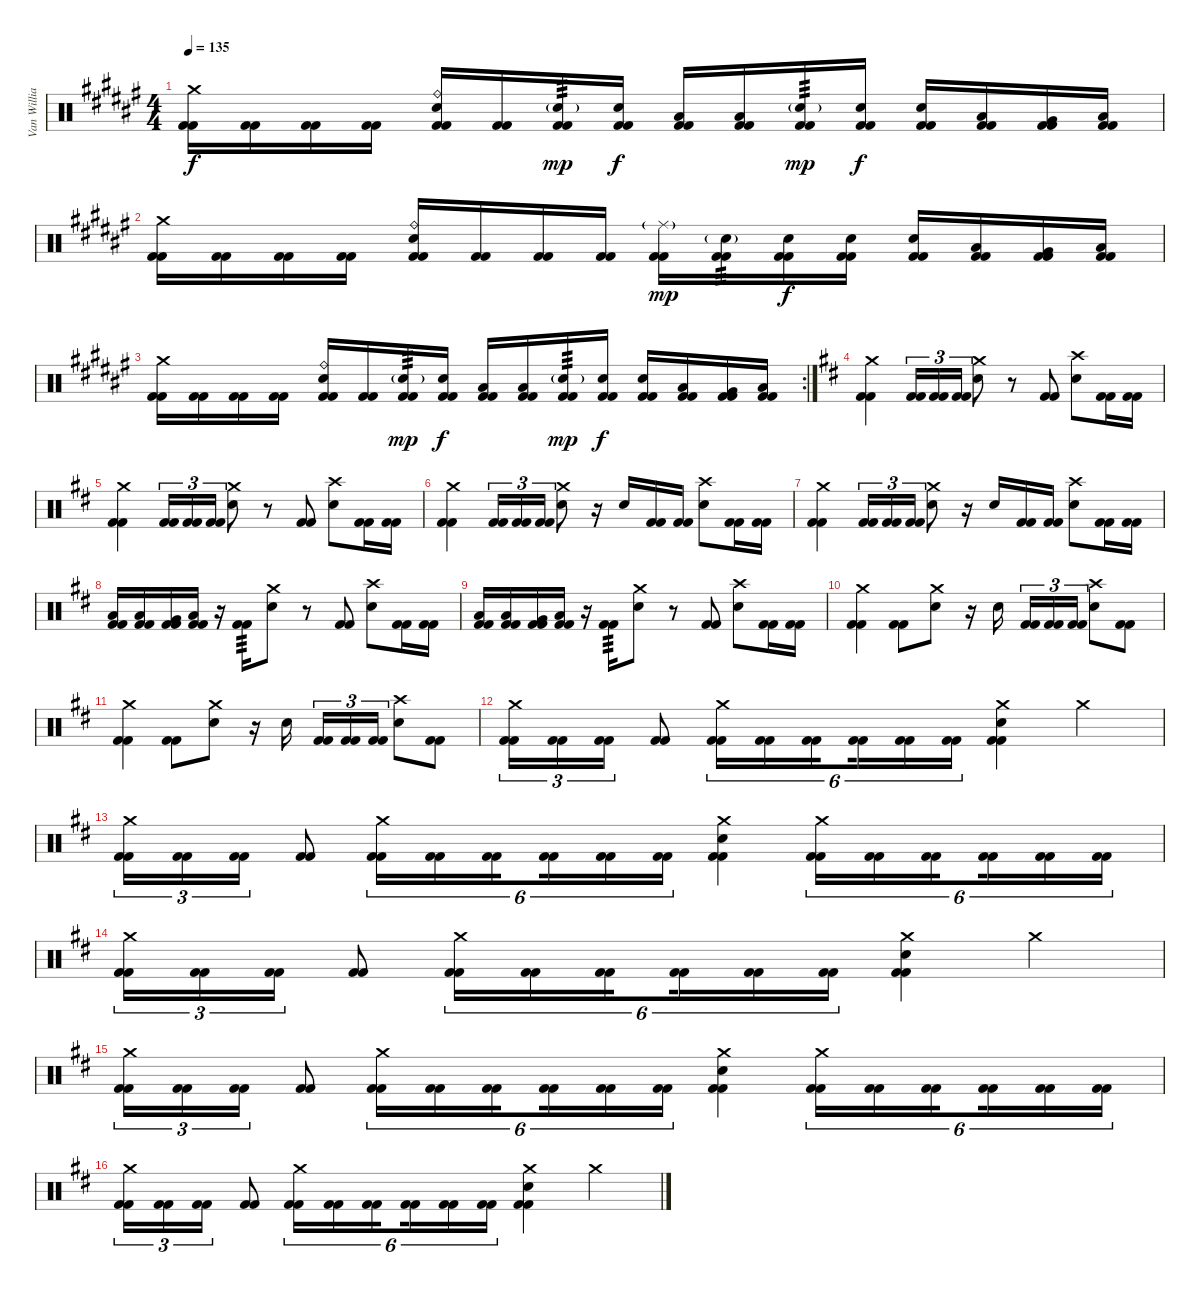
\track ("Van Williams" "Van Willia") {instrument percussion}
\staff {score}
\articulation defaults
\ts (4 4)
\tempo 135
\clef neutral
\ks f#
("Crash medium (hit)" "Kick (hit) 2" "Kick (hit) 2").16{dy f} ("Kick (hit) 2" "Kick (hit) 2").16 ("Kick (hit) 2" "Kick (hit) 2").16 ("Kick (hit) 2" "Kick (hit) 2").16 ("Ride (bell)" "Electric Snare (hit)" "Kick (hit) 2" "Kick (hit) 2").16 ("Kick (hit) 2" "Kick (hit) 2").16 ("Electric Snare (hit)"{g} "Kick (hit) 2" "Kick (hit) 2").16{tp 3 dy mp} ("Electric Snare (hit)" "Kick (hit) 2" "Kick (hit) 2").16{dy f} ("Low Tom (hit)" "Kick (hit) 2" "Kick (hit) 2").16 ("Low Tom (hit)" "Kick (hit) 2" "Kick (hit) 2").16 ("Electric Snare (hit)"{g} "Kick (hit) 2" "Kick (hit) 2").16{tp 3 dy mp} ("Electric Snare (hit)" "Kick (hit) 2" "Kick (hit) 2").16{dy f} ("Electric Snare (hit)" "Kick (hit) 2" "Kick (hit) 2").16 ("Low Tom (hit)" "Kick (hit) 2" "Kick (hit) 2").16 ("Very Low Tom (hit)" "Kick (hit) 2" "Kick (hit) 2").16 ("Low Floor Tom (hit)" "Kick (hit) 2" "Kick (hit) 2").16 |
("Crash medium (hit)" "Kick (hit) 2" "Kick (hit) 2").16 ("Kick (hit) 2" "Kick (hit) 2").16 ("Kick (hit) 2" "Kick (hit) 2").16 ("Kick (hit) 2" "Kick (hit) 2").16 ("Ride (bell)" "Electric Snare (hit)" "Kick (hit) 2" "Kick (hit) 2").16 ("Kick (hit) 2" "Kick (hit) 2").16 ("Kick (hit) 2" "Kick (hit) 2").16 ("Kick (hit) 2" "Kick (hit) 2").16 ("Ride (middle)"{g} "Kick (hit) 2" "Kick (hit) 2").16{dy mp} ("Electric Snare (hit)"{g} "Kick (hit) 2" "Kick (hit) 2").16{tp 3} ("Electric Snare (hit)" "Kick (hit) 2" "Kick (hit) 2").16{dy f} ("Electric Snare (hit)" "Kick (hit) 2" "Kick (hit) 2").16 ("Electric Snare (hit)" "Kick (hit) 2" "Kick (hit) 2").16 ("Low Tom (hit)" "Kick (hit) 2" "Kick (hit) 2").16 ("Very Low Tom (hit)" "Kick (hit) 2" "Kick (hit) 2").16 ("Low Floor Tom (hit)" "Kick (hit) 2" "Kick (hit) 2").16 |
\rc 2
("Crash medium (hit)" "Kick (hit) 2" "Kick (hit) 2").16 ("Kick (hit) 2" "Kick (hit) 2").16 ("Kick (hit) 2" "Kick (hit) 2").16 ("Kick (hit) 2" "Kick (hit) 2").16 ("Ride (bell)" "Electric Snare (hit)" "Kick (hit) 2" "Kick (hit) 2").16 ("Kick (hit) 2" "Kick (hit) 2").16 ("Electric Snare (hit)"{g} "Kick (hit) 2" "Kick (hit) 2").16{tp 3 dy mp} ("Electric Snare (hit)" "Kick (hit) 2" "Kick (hit) 2").16{dy f} ("Low Tom (hit)" "Kick (hit) 2" "Kick (hit) 2").16 ("Low Tom (hit)" "Kick (hit) 2" "Kick (hit) 2").16 ("Electric Snare (hit)"{g} "Kick (hit) 2" "Kick (hit) 2").16{tp 3 dy mp} ("Electric Snare (hit)" "Kick (hit) 2" "Kick (hit) 2").16{dy f} ("Electric Snare (hit)" "Kick (hit) 2" "Kick (hit) 2").16 ("Low Tom (hit)" "Kick (hit) 2" "Kick (hit) 2").16 ("Very Low Tom (hit)" "Kick (hit) 2" "Kick (hit) 2").16 ("Low Floor Tom (hit)" "Kick (hit) 2" "Kick (hit) 2").16 |
\ks d
("Crash medium (hit)" "Kick (hit) 2" "Kick (hit) 2").4 ("Kick (hit) 2" "Kick (hit) 2").16{tu (3 2)} ("Kick (hit) 2" "Kick (hit) 2").16{tu (3 2)} ("Kick (hit) 2" "Kick (hit) 2").16{tu (3 2)} ("Crash medium (hit)" "Electric Snare (hit)").8 r.8 ("Kick (hit) 2" "Kick (hit) 2").8 ("Crash high (hit)" "Electric Snare (hit)").8 ("Kick (hit) 2" "Kick (hit) 2").16 ("Kick (hit) 2" "Kick (hit) 2").16 |
("Crash medium (hit)" "Kick (hit) 2" "Kick (hit) 2").4 ("Kick (hit) 2" "Kick (hit) 2").16{tu (3 2)} ("Kick (hit) 2" "Kick (hit) 2").16{tu (3 2)} ("Kick (hit) 2" "Kick (hit) 2").16{tu (3 2)} ("Crash medium (hit)" "Electric Snare (hit)").8 r.8 ("Kick (hit) 2" "Kick (hit) 2").8 ("Crash high (hit)" "Electric Snare (hit)").8 ("Kick (hit) 2" "Kick (hit) 2").16 ("Kick (hit) 2" "Kick (hit) 2").16 |
("Crash medium (hit)" "Kick (hit) 2" "Kick (hit) 2").4 ("Kick (hit) 2" "Kick (hit) 2").16{tu (3 2)} ("Kick (hit) 2" "Kick (hit) 2").16{tu (3 2)} ("Kick (hit) 2" "Kick (hit) 2").16{tu (3 2)} ("Crash medium (hit)" "Electric Snare (hit)").8 r.16 "Electric Snare (hit)".16 ("Kick (hit) 2" "Kick (hit) 2").16 ("Kick (hit) 2" "Kick (hit) 2").16 ("Crash high (hit)" "Electric Snare (hit)").8 ("Kick (hit) 2" "Kick (hit) 2").16 ("Kick (hit) 2" "Kick (hit) 2").16 |
("Crash medium (hit)" "Kick (hit) 2" "Kick (hit) 2").4 ("Kick (hit) 2" "Kick (hit) 2").16{tu (3 2)} ("Kick (hit) 2" "Kick (hit) 2").16{tu (3 2)} ("Kick (hit) 2" "Kick (hit) 2").16{tu (3 2)} ("Crash medium (hit)" "Electric Snare (hit)").8 r.16 "Electric Snare (hit)".16 ("Kick (hit) 2" "Kick (hit) 2").16 ("Kick (hit) 2" "Kick (hit) 2").16 ("Crash high (hit)" "Electric Snare (hit)").8 ("Kick (hit) 2" "Kick (hit) 2").16 ("Kick (hit) 2" "Kick (hit) 2").16 |
("Low Tom (hit)" "Kick (hit) 2" "Kick (hit) 2").16 ("Low Tom (hit)" "Kick (hit) 2" "Kick (hit) 2").16 ("Very Low Tom (hit)" "Kick (hit) 2" "Kick (hit) 2").16 ("Low Floor Tom (hit)" "Kick (hit) 2" "Kick (hit) 2").16 r.16 ("Kick (hit) 2" "Kick (hit) 2").16{tp 3} ("Crash medium (hit)" "Electric Snare (hit)").8 r.8 ("Kick (hit) 2" "Kick (hit) 2").8 ("Crash high (hit)" "Electric Snare (hit)").8 ("Kick (hit) 2" "Kick (hit) 2").16 ("Kick (hit) 2" "Kick (hit) 2").16 |
("Low Tom (hit)" "Kick (hit) 2" "Kick (hit) 2").16 ("Low Tom (hit)" "Kick (hit) 2" "Kick (hit) 2").16 ("Very Low Tom (hit)" "Kick (hit) 2" "Kick (hit) 2").16 ("Low Floor Tom (hit)" "Kick (hit) 2" "Kick (hit) 2").16 r.16 ("Kick (hit) 2" "Kick (hit) 2").16{tp 3} ("Crash medium (hit)" "Electric Snare (hit)").8 r.8 ("Kick (hit) 2" "Kick (hit) 2").8 ("Crash high (hit)" "Electric Snare (hit)").8 ("Kick (hit) 2" "Kick (hit) 2").16 ("Kick (hit) 2" "Kick (hit) 2").16 |
("Crash medium (hit)" "Kick (hit) 2" "Kick (hit) 2").4 ("Kick (hit) 2" "Kick (hit) 2").8 ("Crash medium (hit)" "Electric Snare (hit)").8 r.16 "Electric Snare (hit)".16{beam splitsecondary} ("Kick (hit) 2" "Kick (hit) 2").16{tu (3 2)} ("Kick (hit) 2" "Kick (hit) 2").16{tu (3 2)} ("Kick (hit) 2" "Kick (hit) 2").16{tu (3 2)} ("Crash high (hit)" "Electric Snare (hit)").8 ("Kick (hit) 2" "Kick (hit) 2").8 |
("Crash medium (hit)" "Kick (hit) 2" "Kick (hit) 2").4 ("Kick (hit) 2" "Kick (hit) 2").8 ("Crash medium (hit)" "Electric Snare (hit)").8 r.16 "Electric Snare (hit)".16{beam splitsecondary} ("Kick (hit) 2" "Kick (hit) 2").16{tu (3 2)} ("Kick (hit) 2" "Kick (hit) 2").16{tu (3 2)} ("Kick (hit) 2" "Kick (hit) 2").16{tu (3 2)} ("Crash high (hit)" "Electric Snare (hit)").8 ("Kick (hit) 2" "Kick (hit) 2").8 |
("Crash medium (hit)" "Kick (hit) 2" "Kick (hit) 2").16{tu (3 2)} ("Kick (hit) 2" "Kick (hit) 2").16{tu (3 2)} ("Kick (hit) 2" "Kick (hit) 2").16{tu (3 2)} ("Kick (hit) 2" "Kick (hit) 2").8 ("Crash medium (hit)" "Kick (hit) 2" "Kick (hit) 2").16{tu (6 4)} ("Kick (hit) 2" "Kick (hit) 2").16{tu (6 4)} ("Kick (hit) 2" "Kick (hit) 2").16{tu (6 4) beam splitsecondary} ("Kick (hit) 2" "Kick (hit) 2").16{tu (6 4)} ("Kick (hit) 2" "Kick (hit) 2").16{tu (6 4)} ("Kick (hit) 2" "Kick (hit) 2").16{tu (6 4)} ("Crash medium (hit)" "Electric Snare (hit)" "Kick (hit) 2" "Kick (hit) 2").4 "Crash medium (hit)".4 |
("Crash medium (hit)" "Kick (hit) 2" "Kick (hit) 2").16{tu (3 2)} ("Kick (hit) 2" "Kick (hit) 2").16{tu (3 2)} ("Kick (hit) 2" "Kick (hit) 2").16{tu (3 2)} ("Kick (hit) 2" "Kick (hit) 2").8 ("Crash medium (hit)" "Kick (hit) 2" "Kick (hit) 2").16{tu (6 4)} ("Kick (hit) 2" "Kick (hit) 2").16{tu (6 4)} ("Kick (hit) 2" "Kick (hit) 2").16{tu (6 4) beam splitsecondary} ("Kick (hit) 2" "Kick (hit) 2").16{tu (6 4)} ("Kick (hit) 2" "Kick (hit) 2").16{tu (6 4)} ("Kick (hit) 2" "Kick (hit) 2").16{tu (6 4)} ("Crash medium (hit)" "Electric Snare (hit)" "Kick (hit) 2" "Kick (hit) 2").4 ("Crash medium (hit)" "Kick (hit) 2" "Kick (hit) 2").16{tu (6 4)} ("Kick (hit) 2" "Kick (hit) 2").16{tu (6 4)} ("Kick (hit) 2" "Kick (hit) 2").16{tu (6 4) beam splitsecondary} ("Kick (hit) 2" "Kick (hit) 2").16{tu (6 4)} ("Kick (hit) 2" "Kick (hit) 2").16{tu (6 4)} ("Kick (hit) 2" "Kick (hit) 2").16{tu (6 4)} |
("Crash medium (hit)" "Kick (hit) 2" "Kick (hit) 2").16{tu (3 2)} ("Kick (hit) 2" "Kick (hit) 2").16{tu (3 2)} ("Kick (hit) 2" "Kick (hit) 2").16{tu (3 2)} ("Kick (hit) 2" "Kick (hit) 2").8 ("Crash medium (hit)" "Kick (hit) 2" "Kick (hit) 2").16{tu (6 4)} ("Kick (hit) 2" "Kick (hit) 2").16{tu (6 4)} ("Kick (hit) 2" "Kick (hit) 2").16{tu (6 4) beam splitsecondary} ("Kick (hit) 2" "Kick (hit) 2").16{tu (6 4)} ("Kick (hit) 2" "Kick (hit) 2").16{tu (6 4)} ("Kick (hit) 2" "Kick (hit) 2").16{tu (6 4)} ("Crash medium (hit)" "Electric Snare (hit)" "Kick (hit) 2" "Kick (hit) 2").4 "Crash medium (hit)".4 |
("Crash medium (hit)" "Kick (hit) 2" "Kick (hit) 2").16{tu (3 2)} ("Kick (hit) 2" "Kick (hit) 2").16{tu (3 2)} ("Kick (hit) 2" "Kick (hit) 2").16{tu (3 2)} ("Kick (hit) 2" "Kick (hit) 2").8 ("Crash medium (hit)" "Kick (hit) 2" "Kick (hit) 2").16{tu (6 4)} ("Kick (hit) 2" "Kick (hit) 2").16{tu (6 4)} ("Kick (hit) 2" "Kick (hit) 2").16{tu (6 4) beam splitsecondary} ("Kick (hit) 2" "Kick (hit) 2").16{tu (6 4)} ("Kick (hit) 2" "Kick (hit) 2").16{tu (6 4)} ("Kick (hit) 2" "Kick (hit) 2").16{tu (6 4)} ("Crash medium (hit)" "Electric Snare (hit)" "Kick (hit) 2" "Kick (hit) 2").4 ("Crash medium (hit)" "Kick (hit) 2" "Kick (hit) 2").16{tu (6 4)} ("Kick (hit) 2" "Kick (hit) 2").16{tu (6 4)} ("Kick (hit) 2" "Kick (hit) 2").16{tu (6 4) beam splitsecondary} ("Kick (hit) 2" "Kick (hit) 2").16{tu (6 4)} ("Kick (hit) 2" "Kick (hit) 2").16{tu (6 4)} ("Kick (hit) 2" "Kick (hit) 2").16{tu (6 4)} |
("Crash medium (hit)" "Kick (hit) 2" "Kick (hit) 2").16{tu (3 2)} ("Kick (hit) 2" "Kick (hit) 2").16{tu (3 2)} ("Kick (hit) 2" "Kick (hit) 2").16{tu (3 2)} ("Kick (hit) 2" "Kick (hit) 2").8 ("Crash medium (hit)" "Kick (hit) 2" "Kick (hit) 2").16{tu (6 4)} ("Kick (hit) 2" "Kick (hit) 2").16{tu (6 4)} ("Kick (hit) 2" "Kick (hit) 2").16{tu (6 4) beam splitsecondary} ("Kick (hit) 2" "Kick (hit) 2").16{tu (6 4)} ("Kick (hit) 2" "Kick (hit) 2").16{tu (6 4)} ("Kick (hit) 2" "Kick (hit) 2").16{tu (6 4)} ("Crash medium (hit)" "Electric Snare (hit)" "Kick (hit) 2" "Kick (hit) 2").4 "Crash medium (hit)".4
